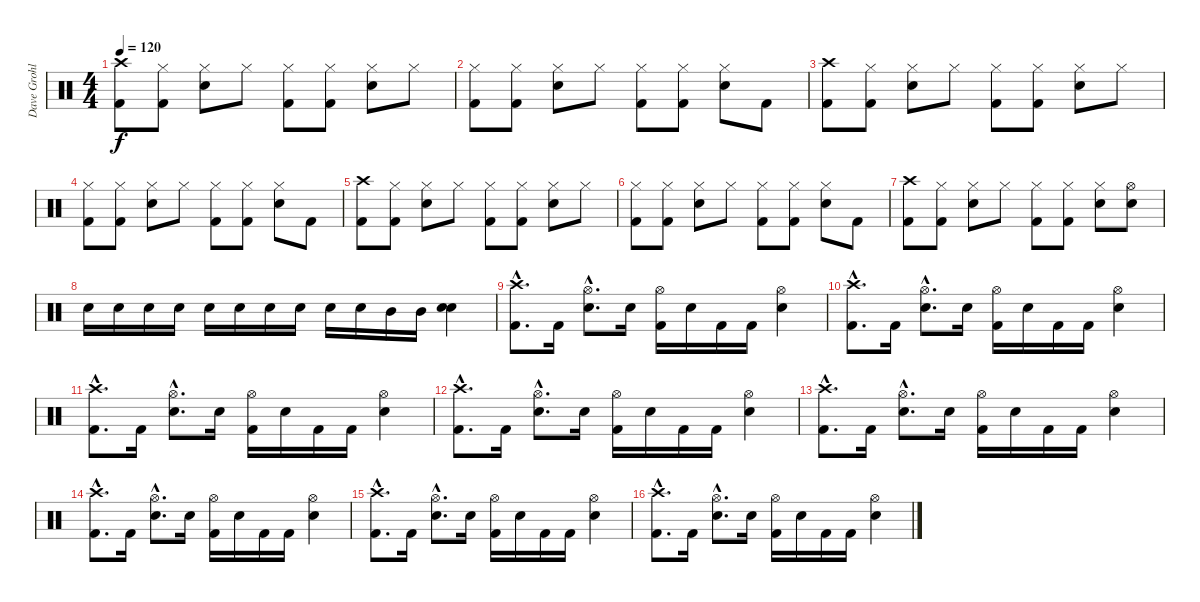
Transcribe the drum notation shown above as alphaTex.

\track ("Dave Grohl" "Dave Grohl") {instrument percussion}
\staff {score}
\articulation defaults
\ts (4 4)
\tempo 120
\clef neutral
\ks c
("Crash high (hit)" "Kick (hit) 2").8{dy f} ("Hi-Hat (closed)" "Kick (hit) 2").8 ("Hi-Hat (closed)" "Snare (hit) 2").8 "Hi-Hat (closed)".8 ("Hi-Hat (closed)" "Kick (hit) 2").8 ("Hi-Hat (closed)" "Kick (hit) 2").8 ("Hi-Hat (closed)" "Snare (hit) 2").8 "Hi-Hat (closed)".8 |
("Hi-Hat (closed)" "Kick (hit) 2").8 ("Hi-Hat (closed)" "Kick (hit) 2").8 ("Hi-Hat (closed)" "Snare (hit) 2").8 "Hi-Hat (closed)".8 ("Hi-Hat (closed)" "Kick (hit) 2").8 ("Hi-Hat (closed)" "Kick (hit) 2").8 ("Hi-Hat (closed)" "Snare (hit) 2").8 "Kick (hit) 2".8 |
("Crash high (hit)" "Kick (hit) 2").8 ("Hi-Hat (closed)" "Kick (hit) 2").8 ("Hi-Hat (closed)" "Snare (hit) 2").8 "Hi-Hat (closed)".8 ("Hi-Hat (closed)" "Kick (hit) 2").8 ("Hi-Hat (closed)" "Kick (hit) 2").8 ("Hi-Hat (closed)" "Snare (hit) 2").8 "Hi-Hat (closed)".8 |
("Hi-Hat (closed)" "Kick (hit) 2").8 ("Hi-Hat (closed)" "Kick (hit) 2").8 ("Hi-Hat (closed)" "Snare (hit) 2").8 "Hi-Hat (closed)".8 ("Hi-Hat (closed)" "Kick (hit) 2").8 ("Hi-Hat (closed)" "Kick (hit) 2").8 ("Hi-Hat (closed)" "Snare (hit) 2").8 "Kick (hit) 2".8 |
("Crash high (hit)" "Kick (hit) 2").8 ("Hi-Hat (closed)" "Kick (hit) 2").8 ("Hi-Hat (closed)" "Snare (hit) 2").8 "Hi-Hat (closed)".8 ("Hi-Hat (closed)" "Kick (hit) 2").8 ("Hi-Hat (closed)" "Kick (hit) 2").8 ("Hi-Hat (closed)" "Snare (hit) 2").8 "Hi-Hat (closed)".8 |
("Hi-Hat (closed)" "Kick (hit) 2").8 ("Hi-Hat (closed)" "Kick (hit) 2").8 ("Hi-Hat (closed)" "Snare (hit) 2").8 "Hi-Hat (closed)".8 ("Hi-Hat (closed)" "Kick (hit) 2").8 ("Hi-Hat (closed)" "Kick (hit) 2").8 ("Hi-Hat (closed)" "Snare (hit) 2").8 "Kick (hit) 2".8 |
("Crash high (hit)" "Kick (hit) 2").8 ("Hi-Hat (closed)" "Kick (hit) 2").8 ("Hi-Hat (closed)" "Snare (hit) 2").8 "Hi-Hat (closed)".8 ("Hi-Hat (closed)" "Kick (hit) 2").8 ("Hi-Hat (closed)" "Kick (hit) 2").8 ("Hi-Hat (closed)" "Snare (hit) 2").8 ("Hi-Hat (open)" "Snare (hit) 2").8 |
"Snare (hit) 2".16 "Snare (hit) 2".16 "Snare (hit) 2".16 "Snare (hit) 2".16 "Snare (hit) 2".16 "Snare (hit) 2".16 "Snare (hit) 2".16 "Snare (hit) 2".16 "Snare (hit) 2".16 "Snare (hit) 2".16 "Mid Tom (hit)".16 "Mid Tom (hit)".16 ("Snare (hit) 2" "Snare (hit) 2").4 |
("Crash high (hit)"{hac} "Kick (hit) 2"{hac}).8{d} "Kick (hit) 2".16 ("Hi-Hat (open)"{hac} "Snare (hit) 2"{hac}).8{d} "Snare (hit) 2".16 ("Hi-Hat (open)" "Kick (hit) 2").16 "Snare (hit) 2".16 "Kick (hit) 2".16 "Kick (hit) 2".16 ("Hi-Hat (open)" "Snare (hit) 2").4 |
("Crash high (hit)"{hac} "Kick (hit) 2"{hac}).8{d} "Kick (hit) 2".16 ("Hi-Hat (open)"{hac} "Snare (hit) 2"{hac}).8{d} "Snare (hit) 2".16 ("Hi-Hat (open)" "Kick (hit) 2").16 "Snare (hit) 2".16 "Kick (hit) 2".16 "Kick (hit) 2".16 ("Hi-Hat (open)" "Snare (hit) 2").4 |
("Crash high (hit)"{hac} "Kick (hit) 2"{hac}).8{d} "Kick (hit) 2".16 ("Hi-Hat (open)"{hac} "Snare (hit) 2"{hac}).8{d} "Snare (hit) 2".16 ("Hi-Hat (open)" "Kick (hit) 2").16 "Snare (hit) 2".16 "Kick (hit) 2".16 "Kick (hit) 2".16 ("Hi-Hat (open)" "Snare (hit) 2").4 |
("Crash high (hit)"{hac} "Kick (hit) 2"{hac}).8{d} "Kick (hit) 2".16 ("Hi-Hat (open)"{hac} "Snare (hit) 2"{hac}).8{d} "Snare (hit) 2".16 ("Hi-Hat (open)" "Kick (hit) 2").16 "Snare (hit) 2".16 "Kick (hit) 2".16 "Kick (hit) 2".16 ("Hi-Hat (open)" "Snare (hit) 2").4 |
("Crash high (hit)"{hac} "Kick (hit) 2"{hac}).8{d} "Kick (hit) 2".16 ("Hi-Hat (open)"{hac} "Snare (hit) 2"{hac}).8{d} "Snare (hit) 2".16 ("Hi-Hat (open)" "Kick (hit) 2").16 "Snare (hit) 2".16 "Kick (hit) 2".16 "Kick (hit) 2".16 ("Hi-Hat (open)" "Snare (hit) 2").4 |
("Crash high (hit)"{hac} "Kick (hit) 2"{hac}).8{d} "Kick (hit) 2".16 ("Hi-Hat (open)"{hac} "Snare (hit) 2"{hac}).8{d} "Snare (hit) 2".16 ("Hi-Hat (open)" "Kick (hit) 2").16 "Snare (hit) 2".16 "Kick (hit) 2".16 "Kick (hit) 2".16 ("Hi-Hat (open)" "Snare (hit) 2").4 |
("Crash high (hit)"{hac} "Kick (hit) 2"{hac}).8{d} "Kick (hit) 2".16 ("Hi-Hat (open)"{hac} "Snare (hit) 2"{hac}).8{d} "Snare (hit) 2".16 ("Hi-Hat (open)" "Kick (hit) 2").16 "Snare (hit) 2".16 "Kick (hit) 2".16 "Kick (hit) 2".16 ("Hi-Hat (open)" "Snare (hit) 2").4 |
("Crash high (hit)"{hac} "Kick (hit) 2"{hac}).8{d} "Kick (hit) 2".16 ("Hi-Hat (open)"{hac} "Snare (hit) 2"{hac}).8{d} "Snare (hit) 2".16 ("Hi-Hat (open)" "Kick (hit) 2").16 "Snare (hit) 2".16 "Kick (hit) 2".16 "Kick (hit) 2".16 ("Hi-Hat (open)" "Snare (hit) 2").4
